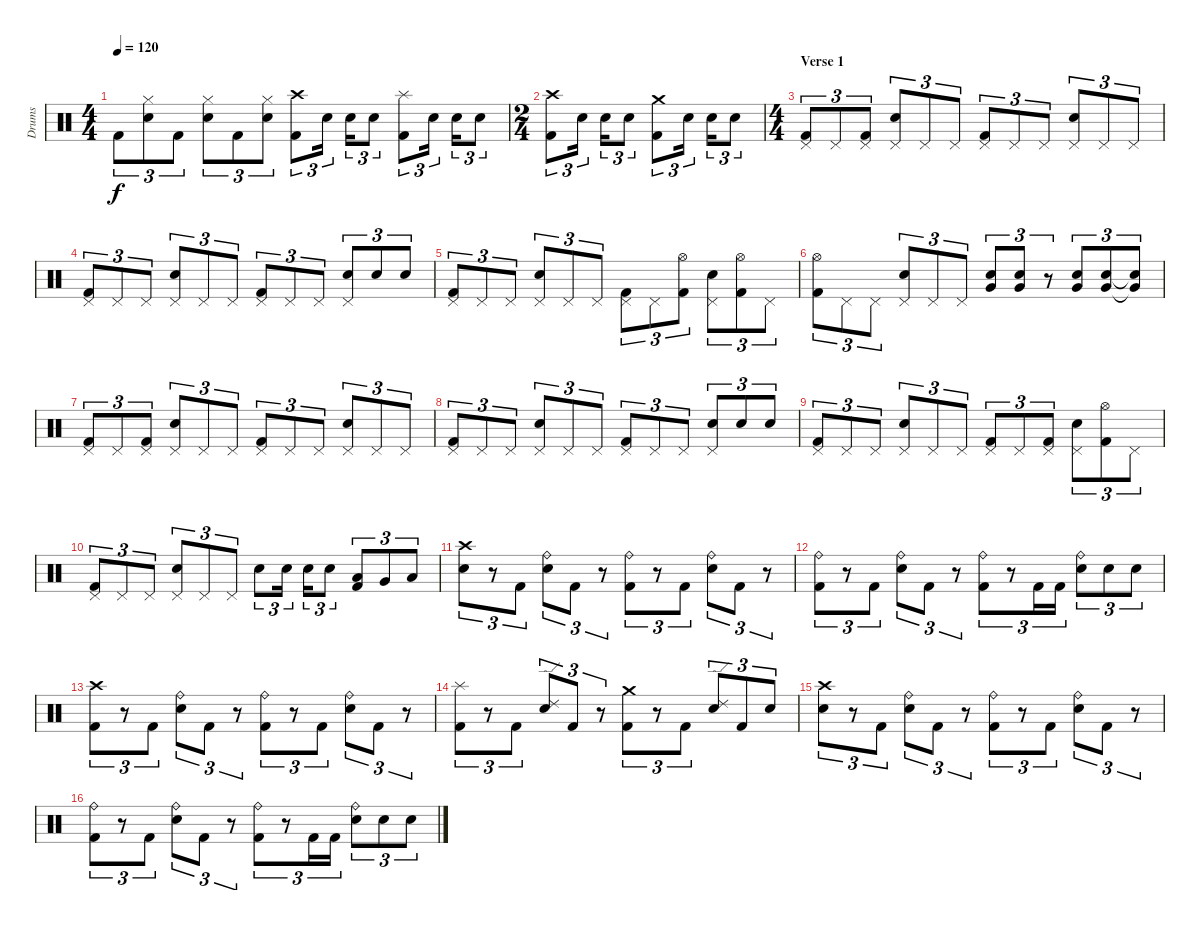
\track ("Drums" "Drums") {instrument percussion}
\staff {score}
\articulation defaults
\ts (4 4)
\tempo 120
\clef neutral
\ks c "Kick (hit) 2".8{tu (3 2) dy f}
("Hi-Hat (closed)" "Snare (hit) 2").8{tu (3 2)} "Kick (hit) 2".8{tu (3 2)} ("Hi-Hat (closed)" "Snare (hit) 2").8{tu (3 2)} "Kick (hit) 2".8{tu (3 2)} ("Hi-Hat (closed)" "Snare (hit) 2").8{tu (3 2)} ("Crash high (hit)" "Kick (hit) 2").8{tu (3 2)} "Snare (hit) 2".16{tu (3 2)} "Snare (hit) 2".16{tu (3 2)} "Snare (hit) 2".8{tu (3 2)} ("Splash (hit)" "Kick (hit) 2").8{tu (3 2)} "Snare (hit) 2".16{tu (3 2)} "Snare (hit) 2".16{tu (3 2)} "Snare (hit) 2".8{tu (3 2)} |
\ts (2 4)
("Crash high (hit)" "Kick (hit) 2").8{tu (3 2)} "Snare (hit) 2".16{tu (3 2)} "Snare (hit) 2".16{tu (3 2)} "Snare (hit) 2".8{tu (3 2)} ("Crash medium (hit)" "Kick (hit) 2").8{tu (3 2)} "Snare (hit) 2".16{tu (3 2)} "Snare (hit) 2".16{tu (3 2)} "Snare (hit) 2".8{tu (3 2)} |
\ts (4 4)
\section ("" "Verse 1")
("Pedal Hi-Hat (hit)" "Kick (hit) 2").8{tu (3 2)} "Pedal Hi-Hat (hit)".8{tu (3 2)} ("Pedal Hi-Hat (hit)" "Kick (hit) 2").8{tu (3 2)} ("Pedal Hi-Hat (hit)" "Snare (hit) 2").8{tu (3 2)} "Pedal Hi-Hat (hit)".8{tu (3 2)} "Pedal Hi-Hat (hit)".8{tu (3 2)} ("Pedal Hi-Hat (hit)" "Kick (hit) 2").8{tu (3 2)} "Pedal Hi-Hat (hit)".8{tu (3 2)} "Pedal Hi-Hat (hit)".8{tu (3 2)} ("Pedal Hi-Hat (hit)" "Snare (hit) 2").8{tu (3 2)} "Pedal Hi-Hat (hit)".8{tu (3 2)} "Pedal Hi-Hat (hit)".8{tu (3 2)} |
("Pedal Hi-Hat (hit)" "Kick (hit) 2").8{tu (3 2)} "Pedal Hi-Hat (hit)".8{tu (3 2)} "Pedal Hi-Hat (hit)".8{tu (3 2)} ("Pedal Hi-Hat (hit)" "Snare (hit) 2").8{tu (3 2)} "Pedal Hi-Hat (hit)".8{tu (3 2)} "Pedal Hi-Hat (hit)".8{tu (3 2)} ("Pedal Hi-Hat (hit)" "Kick (hit) 2").8{tu (3 2)} "Pedal Hi-Hat (hit)".8{tu (3 2)} "Pedal Hi-Hat (hit)".8{tu (3 2)} ("Pedal Hi-Hat (hit)" "Snare (hit) 2").8{tu (3 2)} "Snare (hit) 2".8{tu (3 2)} "Snare (hit) 2".8{tu (3 2)} |
("Pedal Hi-Hat (hit)" "Kick (hit) 2").8{tu (3 2)} "Pedal Hi-Hat (hit)".8{tu (3 2)} "Pedal Hi-Hat (hit)".8{tu (3 2)} ("Pedal Hi-Hat (hit)" "Snare (hit) 2").8{tu (3 2)} "Pedal Hi-Hat (hit)".8{tu (3 2)} "Pedal Hi-Hat (hit)".8{tu (3 2)} ("Pedal Hi-Hat (hit)" "Kick (hit) 2").8{tu (3 2)} "Pedal Hi-Hat (hit)".8{tu (3 2)} ("Hi-Hat (open)" "Kick (hit) 2").8{tu (3 2)} ("Pedal Hi-Hat (hit)" "Snare (hit) 2").8{tu (3 2)} ("Hi-Hat (open)" "Kick (hit) 2").8{tu (3 2)} "Pedal Hi-Hat (hit)".8{tu (3 2)} |
("Hi-Hat (open)" "Kick (hit) 2").8{tu (3 2)} "Pedal Hi-Hat (hit)".8{tu (3 2)} "Pedal Hi-Hat (hit)".8{tu (3 2)} ("Pedal Hi-Hat (hit)" "Snare (hit) 2").8{tu (3 2)} "Pedal Hi-Hat (hit)".8{tu (3 2)} "Pedal Hi-Hat (hit)".8{tu (3 2)} ("Very Low Tom (hit)" "Snare (hit) 2").8{tu (3 2)} ("Very Low Tom (hit)" "Snare (hit) 2").8{tu (3 2)} r.8{tu (3 2)} ("Very Low Tom (hit)" "Snare (hit) 2").8{tu (3 2)} ("Very Low Tom (hit)" "Snare (hit) 2").8{tu (3 2)} ("Very Low Tom (hit)"{t} "Snare (hit) 2"{t}).8{tu (3 2)} |
("Pedal Hi-Hat (hit)" "Kick (hit) 2").8{tu (3 2)} "Pedal Hi-Hat (hit)".8{tu (3 2)} ("Pedal Hi-Hat (hit)" "Kick (hit) 2").8{tu (3 2)} ("Pedal Hi-Hat (hit)" "Snare (hit) 2").8{tu (3 2)} "Pedal Hi-Hat (hit)".8{tu (3 2)} "Pedal Hi-Hat (hit)".8{tu (3 2)} ("Pedal Hi-Hat (hit)" "Kick (hit) 2").8{tu (3 2)} "Pedal Hi-Hat (hit)".8{tu (3 2)} "Pedal Hi-Hat (hit)".8{tu (3 2)} ("Pedal Hi-Hat (hit)" "Snare (hit) 2").8{tu (3 2)} "Pedal Hi-Hat (hit)".8{tu (3 2)} "Pedal Hi-Hat (hit)".8{tu (3 2)} |
("Pedal Hi-Hat (hit)" "Kick (hit) 2").8{tu (3 2)} "Pedal Hi-Hat (hit)".8{tu (3 2)} "Pedal Hi-Hat (hit)".8{tu (3 2)} ("Pedal Hi-Hat (hit)" "Snare (hit) 2").8{tu (3 2)} "Pedal Hi-Hat (hit)".8{tu (3 2)} "Pedal Hi-Hat (hit)".8{tu (3 2)} ("Pedal Hi-Hat (hit)" "Kick (hit) 2").8{tu (3 2)} "Pedal Hi-Hat (hit)".8{tu (3 2)} "Pedal Hi-Hat (hit)".8{tu (3 2)} ("Pedal Hi-Hat (hit)" "Snare (hit) 2").8{tu (3 2)} "Snare (hit) 2".8{tu (3 2)} "Snare (hit) 2".8{tu (3 2)} |
("Pedal Hi-Hat (hit)" "Kick (hit) 2").8{tu (3 2)} "Pedal Hi-Hat (hit)".8{tu (3 2)} "Pedal Hi-Hat (hit)".8{tu (3 2)} ("Pedal Hi-Hat (hit)" "Snare (hit) 2").8{tu (3 2)} "Pedal Hi-Hat (hit)".8{tu (3 2)} "Pedal Hi-Hat (hit)".8{tu (3 2)} ("Pedal Hi-Hat (hit)" "Kick (hit) 2").8{tu (3 2)} "Pedal Hi-Hat (hit)".8{tu (3 2)} ("Pedal Hi-Hat (hit)" "Kick (hit) 2").8{tu (3 2)} ("Pedal Hi-Hat (hit)" "Snare (hit) 2").8{tu (3 2)} ("Hi-Hat (open)" "Kick (hit) 2").8{tu (3 2)} "Pedal Hi-Hat (hit)".8{tu (3 2)} |
("Pedal Hi-Hat (hit)" "Kick (hit) 2").8{tu (3 2)} "Pedal Hi-Hat (hit)".8{tu (3 2)} "Pedal Hi-Hat (hit)".8{tu (3 2)} ("Pedal Hi-Hat (hit)" "Snare (hit) 2").8{tu (3 2)} "Pedal Hi-Hat (hit)".8{tu (3 2)} "Pedal Hi-Hat (hit)".8{tu (3 2)} "Snare (hit) 2".8{tu (3 2)} "Snare (hit) 2".16{tu (3 2)} "Snare (hit) 2".16{tu (3 2)} "Snare (hit) 2".8{tu (3 2)} ("Low Tom (hit)" "Kick (hit) 2").8{tu (3 2)} "Very Low Tom (hit)".8{tu (3 2)} "Low Floor Tom (hit)".8{tu (3 2)} |
("Crash high (hit)" "Snare (hit) 2").8{tu (3 2)} r.8{tu (3 2)} "Kick (hit) 2".8{tu (3 2)} ("Ride (bell)" "Snare (hit) 2").8{tu (3 2)} "Kick (hit) 2".8{tu (3 2)} r.8{tu (3 2)} ("Ride (bell)" "Kick (hit) 2").8{tu (3 2)} r.8{tu (3 2)} "Kick (hit) 2".8{tu (3 2)} ("Ride (bell)" "Snare (hit) 2").8{tu (3 2)} "Kick (hit) 2".8{tu (3 2)} r.8{tu (3 2)} |
("Ride (bell)" "Kick (hit) 2").8{tu (3 2)} r.8{tu (3 2)} "Kick (hit) 2".8{tu (3 2)} ("Ride (bell)" "Snare (hit) 2").8{tu (3 2)} "Kick (hit) 2".8{tu (3 2)} r.8{tu (3 2)} ("Ride (bell)" "Kick (hit) 2").8{tu (3 2)} r.8{tu (3 2)} "Kick (hit) 2".16{tu (3 2)} "Kick (hit) 2".16{tu (3 2)} ("Ride (bell)" "Snare (hit) 2").8{tu (3 2)} "Snare (hit) 2".8{tu (3 2)} "Snare (hit) 2".8{tu (3 2)} |
("Crash high (hit)" "Kick (hit) 2").8{tu (3 2)} r.8{tu (3 2)} "Kick (hit) 2".8{tu (3 2)} ("Ride (bell)" "Snare (hit) 2").8{tu (3 2)} "Kick (hit) 2".8{tu (3 2)} r.8{tu (3 2)} ("Ride (bell)" "Kick (hit) 2").8{tu (3 2)} r.8{tu (3 2)} "Kick (hit) 2".8{tu (3 2)} ("Ride (bell)" "Snare (hit) 2").8{tu (3 2)} "Kick (hit) 2".8{tu (3 2)} r.8{tu (3 2)} |
("Splash (hit)" "Kick (hit) 2").8{tu (3 2)} r.8{tu (3 2)} "Kick (hit) 2".8{tu (3 2)} ("Ride (edge) 2" "Snare (hit) 2").8{tu (3 2)} "Kick (hit) 2".8{tu (3 2)} r.8{tu (3 2)} ("Crash medium (hit)" "Kick (hit) 2").8{tu (3 2)} r.8{tu (3 2)} "Kick (hit) 2".8{tu (3 2)} ("Ride (edge) 2" "Snare (hit) 2").8{tu (3 2)} "Kick (hit) 2".8{tu (3 2)} "Snare (hit) 2".8{tu (3 2)} |
("Crash high (hit)" "Snare (hit) 2").8{tu (3 2)} r.8{tu (3 2)} "Kick (hit) 2".8{tu (3 2)} ("Ride (bell)" "Snare (hit) 2").8{tu (3 2)} "Kick (hit) 2".8{tu (3 2)} r.8{tu (3 2)} ("Ride (bell)" "Kick (hit) 2").8{tu (3 2)} r.8{tu (3 2)} "Kick (hit) 2".8{tu (3 2)} ("Ride (bell)" "Snare (hit) 2").8{tu (3 2)} "Kick (hit) 2".8{tu (3 2)} r.8{tu (3 2)} |
("Ride (bell)" "Kick (hit) 2").8{tu (3 2)} r.8{tu (3 2)} "Kick (hit) 2".8{tu (3 2)} ("Ride (bell)" "Snare (hit) 2").8{tu (3 2)} "Kick (hit) 2".8{tu (3 2)} r.8{tu (3 2)} ("Ride (bell)" "Kick (hit) 2").8{tu (3 2)} r.8{tu (3 2)} "Kick (hit) 2".16{tu (3 2)} "Kick (hit) 2".16{tu (3 2)} ("Ride (bell)" "Snare (hit) 2").8{tu (3 2)} "Snare (hit) 2".8{tu (3 2)} "Snare (hit) 2".8{tu (3 2)}
